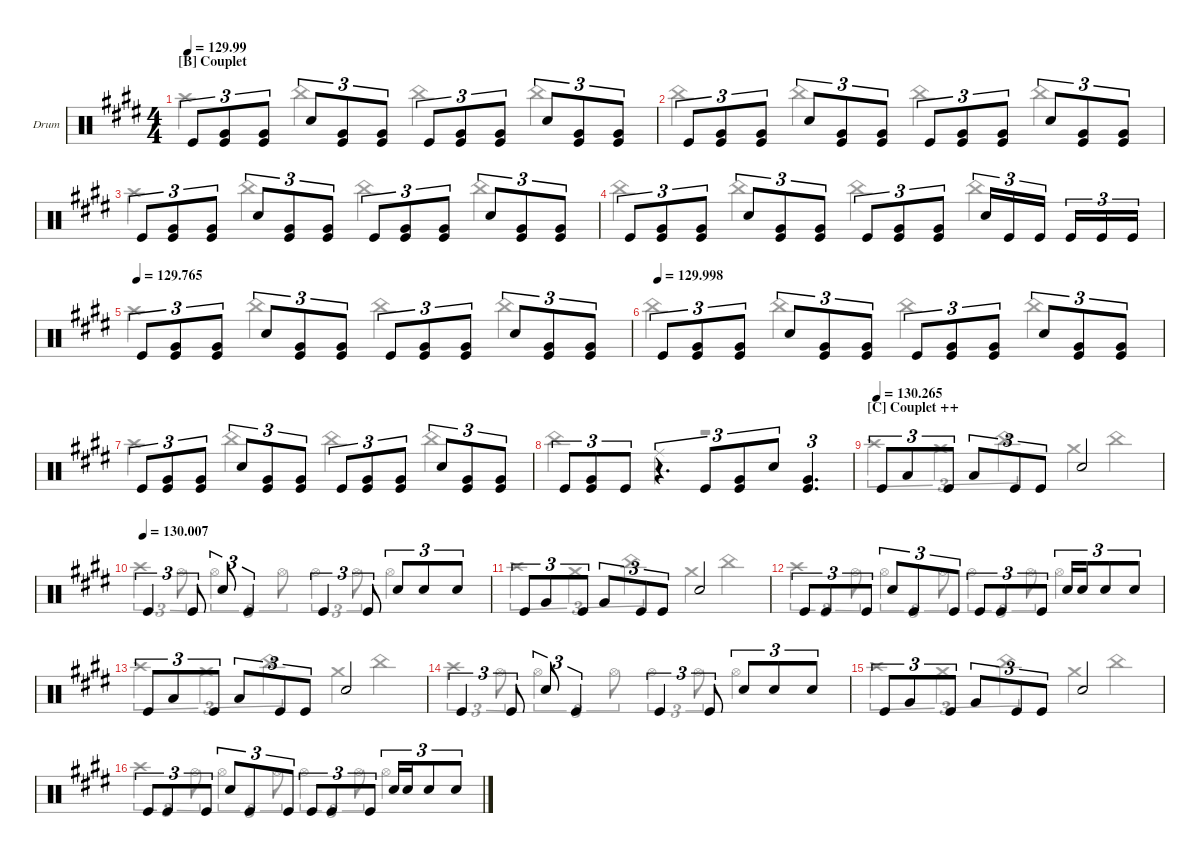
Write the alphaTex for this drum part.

\defaultSystemsLayout 4
\hideDynamics
\bracketExtendMode nobrackets
\firstSystemTrackNameOrientation horizontal
\otherSystemsTrackNameOrientation horizontal
\track ("BATTERIE" "Drum") {defaultSystemsLayout 4 instrument percussion}
\staff {score}
\articulation defaults
\voice
\ts (4 4)
\section ("B" "Couplet")
\tempo
129.99
\accidentals auto
\clef neutral
\ottava regular
\simile none
\ks e "Kick (hit)".8{tu (3 2) dy mf}
("Kick (hit)" "Very Low Tom (hit)").8{tu (3 2)} ("Kick (hit)" "Very Low Tom (hit)").8{tu (3 2)} "Snare (hit) 2".8{tu (3 2)} ("Kick (hit)" "Very Low Tom (hit)").8{tu (3 2)} ("Kick (hit)" "Very Low Tom (hit)").8{tu (3 2)} "Kick (hit)".8{tu (3 2)} ("Kick (hit)" "Very Low Tom (hit)").8{tu (3 2)} ("Kick (hit)" "Very Low Tom (hit)").8{tu (3 2)} "Snare (hit) 2".8{tu (3 2)} ("Kick (hit)" "Very Low Tom (hit)").8{tu (3 2)} ("Kick (hit)" "Very Low Tom (hit)").8{tu (3 2)} |
"Kick (hit)".8{tu (3 2)} ("Kick (hit)" "Very Low Tom (hit)").8{tu (3 2)} ("Kick (hit)" "Very Low Tom (hit)").8{tu (3 2)} "Snare (hit) 2".8{tu (3 2)} ("Kick (hit)" "Very Low Tom (hit)").8{tu (3 2)} ("Kick (hit)" "Very Low Tom (hit)").8{tu (3 2)} "Kick (hit)".8{tu (3 2)} ("Kick (hit)" "Very Low Tom (hit)").8{tu (3 2)} ("Kick (hit)" "Very Low Tom (hit)").8{tu (3 2)} "Snare (hit) 2".8{tu (3 2)} ("Kick (hit)" "Very Low Tom (hit)").8{tu (3 2)} ("Kick (hit)" "Very Low Tom (hit)").8{tu (3 2)} |
"Kick (hit)".8{tu (3 2)} ("Kick (hit)" "Very Low Tom (hit)").8{tu (3 2)} ("Kick (hit)" "Very Low Tom (hit)").8{tu (3 2)} "Snare (hit) 2".8{tu (3 2)} ("Kick (hit)" "Very Low Tom (hit)").8{tu (3 2)} ("Kick (hit)" "Very Low Tom (hit)").8{tu (3 2)} "Kick (hit)".8{tu (3 2)} ("Kick (hit)" "Very Low Tom (hit)").8{tu (3 2)} ("Kick (hit)" "Very Low Tom (hit)").8{tu (3 2)} "Snare (hit) 2".8{tu (3 2)} ("Kick (hit)" "Very Low Tom (hit)").8{tu (3 2)} ("Kick (hit)" "Very Low Tom (hit)").8{tu (3 2)} |
"Kick (hit)".8{tu (3 2)} ("Kick (hit)" "Very Low Tom (hit)").8{tu (3 2)} ("Kick (hit)" "Very Low Tom (hit)").8{tu (3 2)} "Snare (hit) 2".8{tu (3 2)} ("Kick (hit)" "Very Low Tom (hit)").8{tu (3 2)} ("Kick (hit)" "Very Low Tom (hit)").8{tu (3 2)} "Kick (hit)".8{tu (3 2)} ("Kick (hit)" "Very Low Tom (hit)").8{tu (3 2)} ("Kick (hit)" "Very Low Tom (hit)").8{tu (3 2)} "Snare (hit) 2".16{tu (3 2)} "Kick (hit)".16{tu (3 2)} "Kick (hit)".16{tu (3 2)} "Kick (hit)".16{tu (3 2)} "Kick (hit)".16{tu (3 2)} "Kick (hit)".16{tu (3 2)} |
\tempo (129.765)
"Kick (hit)".8{tu (3 2)} ("Kick (hit)" "Very Low Tom (hit)").8{tu (3 2)} ("Kick (hit)" "Very Low Tom (hit)").8{tu (3 2)} "Snare (hit) 2".8{tu (3 2)} ("Kick (hit)" "Very Low Tom (hit)").8{tu (3 2)} ("Kick (hit)" "Very Low Tom (hit)").8{tu (3 2)} "Kick (hit)".8{tu (3 2)} ("Kick (hit)" "Very Low Tom (hit)").8{tu (3 2)} ("Kick (hit)" "Very Low Tom (hit)").8{tu (3 2)} "Snare (hit) 2".8{tu (3 2)} ("Kick (hit)" "Very Low Tom (hit)").8{tu (3 2)} ("Kick (hit)" "Very Low Tom (hit)").8{tu (3 2)} |
\tempo (129.998)
"Kick (hit)".8{tu (3 2)} ("Kick (hit)" "Very Low Tom (hit)").8{tu (3 2)} ("Kick (hit)" "Very Low Tom (hit)").8{tu (3 2)} "Snare (hit) 2".8{tu (3 2)} ("Kick (hit)" "Very Low Tom (hit)").8{tu (3 2)} ("Kick (hit)" "Very Low Tom (hit)").8{tu (3 2)} "Kick (hit)".8{tu (3 2)} ("Kick (hit)" "Very Low Tom (hit)").8{tu (3 2)} ("Kick (hit)" "Very Low Tom (hit)").8{tu (3 2)} "Snare (hit) 2".8{tu (3 2)} ("Kick (hit)" "Very Low Tom (hit)").8{tu (3 2)} ("Kick (hit)" "Very Low Tom (hit)").8{tu (3 2)} |
"Kick (hit)".8{tu (3 2)} ("Kick (hit)" "Very Low Tom (hit)").8{tu (3 2)} ("Kick (hit)" "Very Low Tom (hit)").8{tu (3 2)} "Snare (hit) 2".8{tu (3 2)} ("Kick (hit)" "Very Low Tom (hit)").8{tu (3 2)} ("Kick (hit)" "Very Low Tom (hit)").8{tu (3 2)} "Kick (hit)".8{tu (3 2)} ("Kick (hit)" "Very Low Tom (hit)").8{tu (3 2)} ("Kick (hit)" "Very Low Tom (hit)").8{tu (3 2)} "Snare (hit) 2".8{tu (3 2)} ("Kick (hit)" "Very Low Tom (hit)").8{tu (3 2)} ("Kick (hit)" "Very Low Tom (hit)").8{tu (3 2)} |
"Kick (hit)".8{tu (3 2)} ("Kick (hit)" "Very Low Tom (hit)").8{tu (3 2)} "Kick (hit)".8{tu (3 2)} r.4{d tu (3 2)} "Kick (hit)".8{tu (3 2)} ("Kick (hit)" "Very Low Tom (hit)").8{tu (3 2)} "Snare (hit) 2".8{tu (3 2)} ("Kick (hit)" "Very Low Tom (hit)").4{d tu (3 2)} |
\section ("C" "Couplet ++")
\tempo (130.265)
"Kick (hit)".8{tu (3 2)} "Low Tom (hit)".8{tu (3 2) dy p} "Kick (hit)".8{tu (3 2) dy mf} "Low Tom (hit)".8{tu (3 2) dy p} "Kick (hit)".8{tu (3 2) dy mf} "Kick (hit)".8{tu (3 2)} "Snare (hit) 2".2 |
\tempo (130.007)
"Kick (hit)".4{tu (3 2)} "Kick (hit)".8{tu (3 2)} "Snare (hit) 2".8{tu (3 2)} "Kick (hit)".4{tu (3 2)} "Kick (hit)".4{tu (3 2)} "Kick (hit)".8{tu (3 2)} "Snare (hit) 2".8{tu (3 2)} "Snare (hit) 2".8{tu (3 2)} "Snare (hit) 2".8{tu (3 2)} |
"Kick (hit)".8{tu (3 2)} "Very Low Tom (hit)".8{tu (3 2)} "Kick (hit)".8{tu (3 2)} "Very Low Tom (hit)".8{tu (3 2)} "Kick (hit)".8{tu (3 2)} "Kick (hit)".8{tu (3 2)} "Snare (hit) 2".2 |
"Kick (hit)".8{tu (3 2)} "Kick (hit)".8{tu (3 2)} "Kick (hit)".8{tu (3 2)} "Snare (hit) 2".8{tu (3 2)} "Kick (hit)".8{tu (3 2)} "Kick (hit)".8{tu (3 2)} "Kick (hit)".8{tu (3 2)} "Kick (hit)".8{tu (3 2)} "Kick (hit)".8{tu (3 2)} "Snare (hit) 2".16{tu (3 2)} "Snare (hit) 2".16{tu (3 2)} "Snare (hit) 2".8{tu (3 2)} "Snare (hit) 2".8{tu (3 2)} |
"Kick (hit)".8{tu (3 2)} "Low Tom (hit)".8{tu (3 2) dy p} "Kick (hit)".8{tu (3 2) dy mf} "Low Tom (hit)".8{tu (3 2) dy p} "Kick (hit)".8{tu (3 2) dy mf} "Kick (hit)".8{tu (3 2)} "Snare (hit) 2".2 |
"Kick (hit)".4{tu (3 2)} "Kick (hit)".8{tu (3 2)} "Snare (hit) 2".8{tu (3 2)} "Kick (hit)".4{tu (3 2)} "Kick (hit)".4{tu (3 2)} "Kick (hit)".8{tu (3 2)} "Snare (hit) 2".8{tu (3 2)} "Snare (hit) 2".8{tu (3 2)} "Snare (hit) 2".8{tu (3 2)} |
"Kick (hit)".8{tu (3 2)} "Very Low Tom (hit)".8{tu (3 2)} "Kick (hit)".8{tu (3 2)} "Very Low Tom (hit)".8{tu (3 2)} "Kick (hit)".8{tu (3 2)} "Kick (hit)".8{tu (3 2)} "Snare (hit) 2".2 |
"Kick (hit)".8{tu (3 2)} "Kick (hit)".8{tu (3 2)} "Kick (hit)".8{tu (3 2)} "Snare (hit) 2".8{tu (3 2)} "Kick (hit)".8{tu (3 2)} "Kick (hit)".8{tu (3 2)} "Kick (hit)".8{tu (3 2)} "Kick (hit)".8{tu (3 2)} "Kick (hit)".8{tu (3 2)} "Snare (hit) 2".16{tu (3 2)} "Snare (hit) 2".16{tu (3 2)} "Snare (hit) 2".8{tu (3 2)} "Snare (hit) 2".8{tu (3 2)}
\voice
\clef neutral
\ottava regular
\simile none
\ks e "Crash high (hit)".4{dy mf} "China (hit)".4 "China (hit)".4 "China (hit)".4
|
"China (hit)".4 "China (hit)".4 "China (hit)".4 "China (hit)".4 |
"Crash high (hit)".4 "China (hit)".4 "China (hit)".4 "China (hit)".4 |
"China (hit)".4 "China (hit)".4 "China (hit)".4 "China (hit)".4 |
"Crash high (hit)".4 "China (hit)".4 "China (hit)".4 "China (hit)".4 |
"China (hit)".4 "China (hit)".4 "China (hit)".4 "China (hit)".4 |
"Crash high (hit)".4 "China (hit)".4 "China (hit)".4 "China (hit)".4 |
"China (hit)".4 "Ride (middle)".4 r.2 |
"Crash high (hit)".4{tu (3 2)} "Crash medium (hit)".4{tu (3 2)} "China (hit)".4{tu (3 2)} "Crash medium (hit)".4 "China (hit)".4 |
"Crash high (hit)".4{tu (3 2)} "Hi-Hat (open)".8{tu (3 2)} "Hi-Hat (open)".4{tu (3 2)} "Hi-Hat (open)".8{tu (3 2)} "Hi-Hat (open)".4{tu (3 2)} "Hi-Hat (open)".8{tu (3 2)} "Hi-Hat (open)".4 |
"Crash high (hit)".4{tu (3 2)} "Crash medium (hit)".4{tu (3 2)} "China (hit)".4{tu (3 2)} "Crash medium (hit)".4 "China (hit)".4 |
"Crash high (hit)".4{tu (3 2)} "Hi-Hat (open)".8{tu (3 2)} "Hi-Hat (open)".4{tu (3 2)} "Hi-Hat (open)".8{tu (3 2)} "Hi-Hat (open)".4{tu (3 2)} "Hi-Hat (open)".8{tu (3 2)} "Hi-Hat (open)".4 |
"Crash high (hit)".4{tu (3 2)} "Crash medium (hit)".4{tu (3 2)} "China (hit)".4{tu (3 2)} "Crash medium (hit)".4 "China (hit)".4 |
"Crash high (hit)".4{tu (3 2)} "Hi-Hat (open)".8{tu (3 2)} "Hi-Hat (open)".4{tu (3 2)} "Hi-Hat (open)".8{tu (3 2)} "Hi-Hat (open)".4{tu (3 2)} "Hi-Hat (open)".8{tu (3 2)} "Hi-Hat (open)".4 |
"Crash high (hit)".4{tu (3 2)} "Crash medium (hit)".4{tu (3 2)} "China (hit)".4{tu (3 2)} "Crash medium (hit)".4 "China (hit)".4 |
"Crash high (hit)".4{tu (3 2)} "Hi-Hat (open)".8{tu (3 2)} "Hi-Hat (open)".4{tu (3 2)} "Hi-Hat (open)".8{tu (3 2)} "Hi-Hat (open)".4{tu (3 2)} "Hi-Hat (open)".8{tu (3 2)} "Hi-Hat (open)".4
